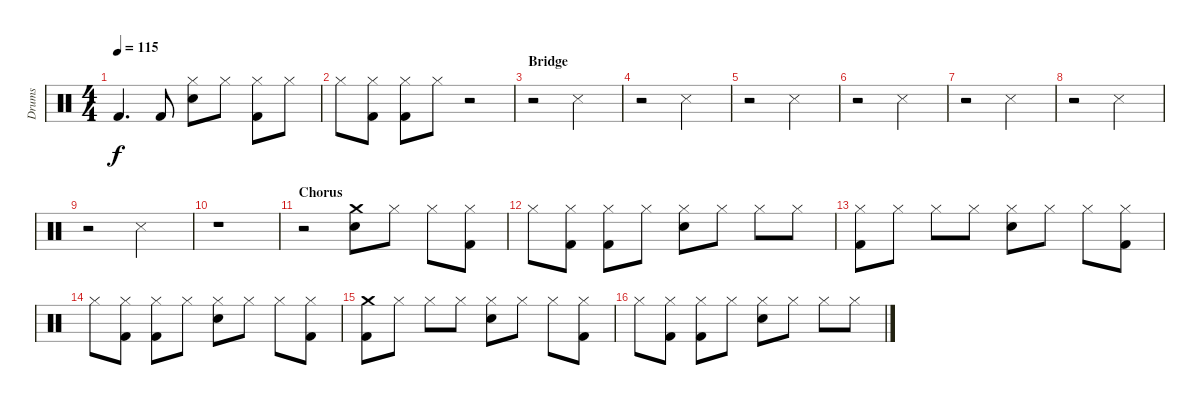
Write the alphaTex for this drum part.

\track ("Drums" "Drums") {instrument percussion}
\staff {score}
\articulation defaults
\ts (4 4)
\tempo 115
\clef neutral
\ks c "Kick (hit) 2".4{d dy f} "Kick (hit) 2".8
("Hi-Hat (closed)" "Snare (hit) 2").8 "Hi-Hat (closed)".8 ("Hi-Hat (closed)" "Kick (hit) 2").8 "Hi-Hat (closed)".8 |
"Hi-Hat (closed)".8 ("Hi-Hat (closed)" "Kick (hit) 2").8 ("Hi-Hat (closed)" "Kick (hit) 2").8 "Hi-Hat (closed)".8 r.2 |
\section ("" "Bridge")
r.2 "Snare (side stick) 3".2 |
r.2 "Snare (side stick) 3".2 |
r.2 "Snare (side stick) 3".2 |
r.2 "Snare (side stick) 3".2 |
r.2 "Snare (side stick) 3".2 |
r.2 "Snare (side stick) 3".2 |
r.2 "Snare (side stick) 3".2 |
r.1 |
\section ("" "Chorus")
r.2 ("Crash medium (hit)" "Snare (hit) 2").8 "Hi-Hat (closed)".8 "Hi-Hat (closed)".8 ("Hi-Hat (closed)" "Kick (hit) 2").8 |
"Hi-Hat (closed)".8 ("Hi-Hat (closed)" "Kick (hit) 2").8 ("Hi-Hat (closed)" "Kick (hit) 2").8 "Hi-Hat (closed)".8 ("Hi-Hat (closed)" "Snare (hit) 2").8 "Hi-Hat (closed)".8 "Hi-Hat (closed)".8 "Hi-Hat (closed)".8 |
("Hi-Hat (closed)" "Kick (hit) 2").8 "Hi-Hat (closed)".8 "Hi-Hat (closed)".8 "Hi-Hat (closed)".8 ("Hi-Hat (closed)" "Snare (hit) 2").8 "Hi-Hat (closed)".8 "Hi-Hat (closed)".8 ("Hi-Hat (closed)" "Kick (hit) 2").8 |
"Hi-Hat (closed)".8 ("Hi-Hat (closed)" "Kick (hit) 2").8 ("Hi-Hat (closed)" "Kick (hit) 2").8 "Hi-Hat (closed)".8 ("Hi-Hat (closed)" "Snare (hit) 2").8 "Hi-Hat (closed)".8 "Hi-Hat (closed)".8 ("Hi-Hat (closed)" "Kick (hit) 2").8 |
("Crash medium (hit)" "Kick (hit) 2").8 "Hi-Hat (closed)".8 "Hi-Hat (closed)".8 "Hi-Hat (closed)".8 ("Hi-Hat (closed)" "Snare (hit) 2").8 "Hi-Hat (closed)".8 "Hi-Hat (closed)".8 ("Hi-Hat (closed)" "Kick (hit) 2").8 |
"Hi-Hat (closed)".8 ("Hi-Hat (closed)" "Kick (hit) 2").8 ("Hi-Hat (closed)" "Kick (hit) 2").8 "Hi-Hat (closed)".8 ("Hi-Hat (closed)" "Snare (hit) 2").8 "Hi-Hat (closed)".8 "Hi-Hat (closed)".8 "Hi-Hat (closed)".8
